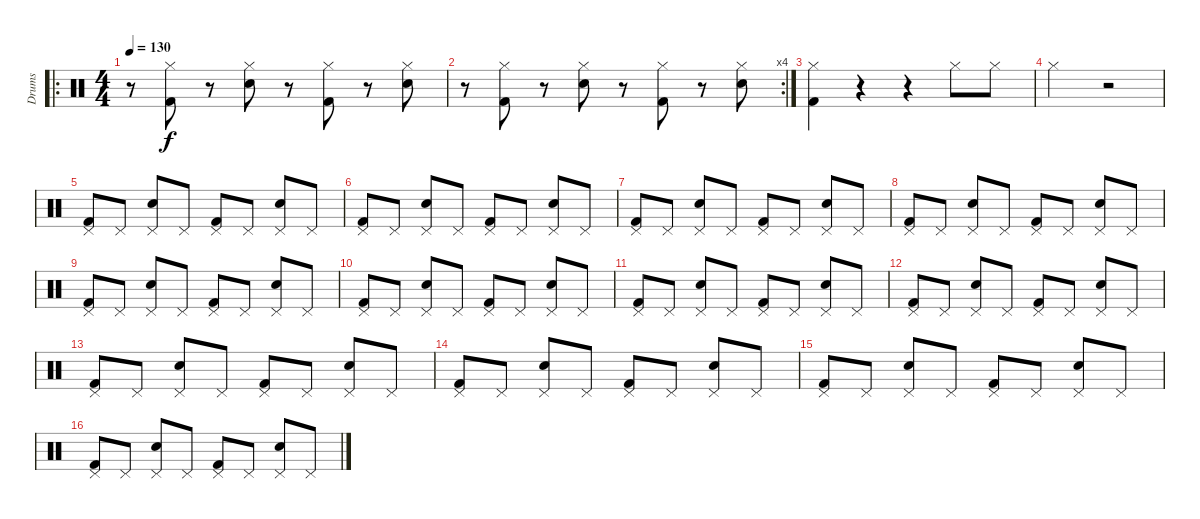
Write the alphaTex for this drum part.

\track ("Drums" "Drums") {instrument percussion}
\staff {score}
\articulation defaults
\ro
\ts (4 4)
\tempo 130
\clef neutral
\ks c
r.8{dy f} ("Hi-Hat (closed)" "Kick (hit) 2").8 r.8 ("Hi-Hat (closed)" "Snare (hit) 2").8 r.8 ("Hi-Hat (closed)" "Kick (hit) 2").8 r.8 ("Hi-Hat (closed)" "Snare (hit) 2").8 |
\rc 4
r.8 ("Hi-Hat (closed)" "Kick (hit) 2").8 r.8 ("Hi-Hat (closed)" "Snare (hit) 2").8 r.8 ("Hi-Hat (closed)" "Kick (hit) 2").8 r.8 ("Hi-Hat (closed)" "Snare (hit) 2").8 |
("Hi-Hat (closed)" "Kick (hit) 2").4 r.4 r.4 "Hi-Hat (closed)".8 "Hi-Hat (closed)".8 |
"Hi-Hat (closed)".2 r.2 |
("Pedal Hi-Hat (hit)" "Kick (hit) 2").8 "Pedal Hi-Hat (hit)".8 ("Pedal Hi-Hat (hit)" "Snare (hit) 2").8 "Pedal Hi-Hat (hit)".8 ("Pedal Hi-Hat (hit)" "Kick (hit) 2").8 "Pedal Hi-Hat (hit)".8 ("Pedal Hi-Hat (hit)" "Snare (hit) 2").8 "Pedal Hi-Hat (hit)".8 |
("Pedal Hi-Hat (hit)" "Kick (hit) 2").8 "Pedal Hi-Hat (hit)".8 ("Pedal Hi-Hat (hit)" "Snare (hit) 2").8 "Pedal Hi-Hat (hit)".8 ("Pedal Hi-Hat (hit)" "Kick (hit) 2").8 "Pedal Hi-Hat (hit)".8 ("Pedal Hi-Hat (hit)" "Snare (hit) 2").8 "Pedal Hi-Hat (hit)".8 |
("Pedal Hi-Hat (hit)" "Kick (hit) 2").8 "Pedal Hi-Hat (hit)".8 ("Pedal Hi-Hat (hit)" "Snare (hit) 2").8 "Pedal Hi-Hat (hit)".8 ("Pedal Hi-Hat (hit)" "Kick (hit) 2").8 "Pedal Hi-Hat (hit)".8 ("Pedal Hi-Hat (hit)" "Snare (hit) 2").8 "Pedal Hi-Hat (hit)".8 |
("Pedal Hi-Hat (hit)" "Kick (hit) 2").8 "Pedal Hi-Hat (hit)".8 ("Pedal Hi-Hat (hit)" "Snare (hit) 2").8 "Pedal Hi-Hat (hit)".8 ("Pedal Hi-Hat (hit)" "Kick (hit) 2").8 "Pedal Hi-Hat (hit)".8 ("Pedal Hi-Hat (hit)" "Snare (hit) 2").8 "Pedal Hi-Hat (hit)".8 |
("Pedal Hi-Hat (hit)" "Kick (hit) 2").8 "Pedal Hi-Hat (hit)".8 ("Pedal Hi-Hat (hit)" "Snare (hit) 2").8 "Pedal Hi-Hat (hit)".8 ("Pedal Hi-Hat (hit)" "Kick (hit) 2").8 "Pedal Hi-Hat (hit)".8 ("Pedal Hi-Hat (hit)" "Snare (hit) 2").8 "Pedal Hi-Hat (hit)".8 |
("Pedal Hi-Hat (hit)" "Kick (hit) 2").8 "Pedal Hi-Hat (hit)".8 ("Pedal Hi-Hat (hit)" "Snare (hit) 2").8 "Pedal Hi-Hat (hit)".8 ("Pedal Hi-Hat (hit)" "Kick (hit) 2").8 "Pedal Hi-Hat (hit)".8 ("Pedal Hi-Hat (hit)" "Snare (hit) 2").8 "Pedal Hi-Hat (hit)".8 |
("Pedal Hi-Hat (hit)" "Kick (hit) 2").8 "Pedal Hi-Hat (hit)".8 ("Pedal Hi-Hat (hit)" "Snare (hit) 2").8 "Pedal Hi-Hat (hit)".8 ("Pedal Hi-Hat (hit)" "Kick (hit) 2").8 "Pedal Hi-Hat (hit)".8 ("Pedal Hi-Hat (hit)" "Snare (hit) 2").8 "Pedal Hi-Hat (hit)".8 |
("Pedal Hi-Hat (hit)" "Kick (hit) 2").8 "Pedal Hi-Hat (hit)".8 ("Pedal Hi-Hat (hit)" "Snare (hit) 2").8 "Pedal Hi-Hat (hit)".8 ("Pedal Hi-Hat (hit)" "Kick (hit) 2").8 "Pedal Hi-Hat (hit)".8 ("Pedal Hi-Hat (hit)" "Snare (hit) 2").8 "Pedal Hi-Hat (hit)".8 |
("Pedal Hi-Hat (hit)" "Kick (hit) 2").8 "Pedal Hi-Hat (hit)".8 ("Pedal Hi-Hat (hit)" "Snare (hit) 2").8 "Pedal Hi-Hat (hit)".8 ("Pedal Hi-Hat (hit)" "Kick (hit) 2").8 "Pedal Hi-Hat (hit)".8 ("Pedal Hi-Hat (hit)" "Snare (hit) 2").8 "Pedal Hi-Hat (hit)".8 |
("Pedal Hi-Hat (hit)" "Kick (hit) 2").8 "Pedal Hi-Hat (hit)".8 ("Pedal Hi-Hat (hit)" "Snare (hit) 2").8 "Pedal Hi-Hat (hit)".8 ("Pedal Hi-Hat (hit)" "Kick (hit) 2").8 "Pedal Hi-Hat (hit)".8 ("Pedal Hi-Hat (hit)" "Snare (hit) 2").8 "Pedal Hi-Hat (hit)".8 |
("Pedal Hi-Hat (hit)" "Kick (hit) 2").8 "Pedal Hi-Hat (hit)".8 ("Pedal Hi-Hat (hit)" "Snare (hit) 2").8 "Pedal Hi-Hat (hit)".8 ("Pedal Hi-Hat (hit)" "Kick (hit) 2").8 "Pedal Hi-Hat (hit)".8 ("Pedal Hi-Hat (hit)" "Snare (hit) 2").8 "Pedal Hi-Hat (hit)".8 |
("Pedal Hi-Hat (hit)" "Kick (hit) 2").8 "Pedal Hi-Hat (hit)".8 ("Pedal Hi-Hat (hit)" "Snare (hit) 2").8 "Pedal Hi-Hat (hit)".8 ("Pedal Hi-Hat (hit)" "Kick (hit) 2").8 "Pedal Hi-Hat (hit)".8 ("Pedal Hi-Hat (hit)" "Snare (hit) 2").8 "Pedal Hi-Hat (hit)".8
